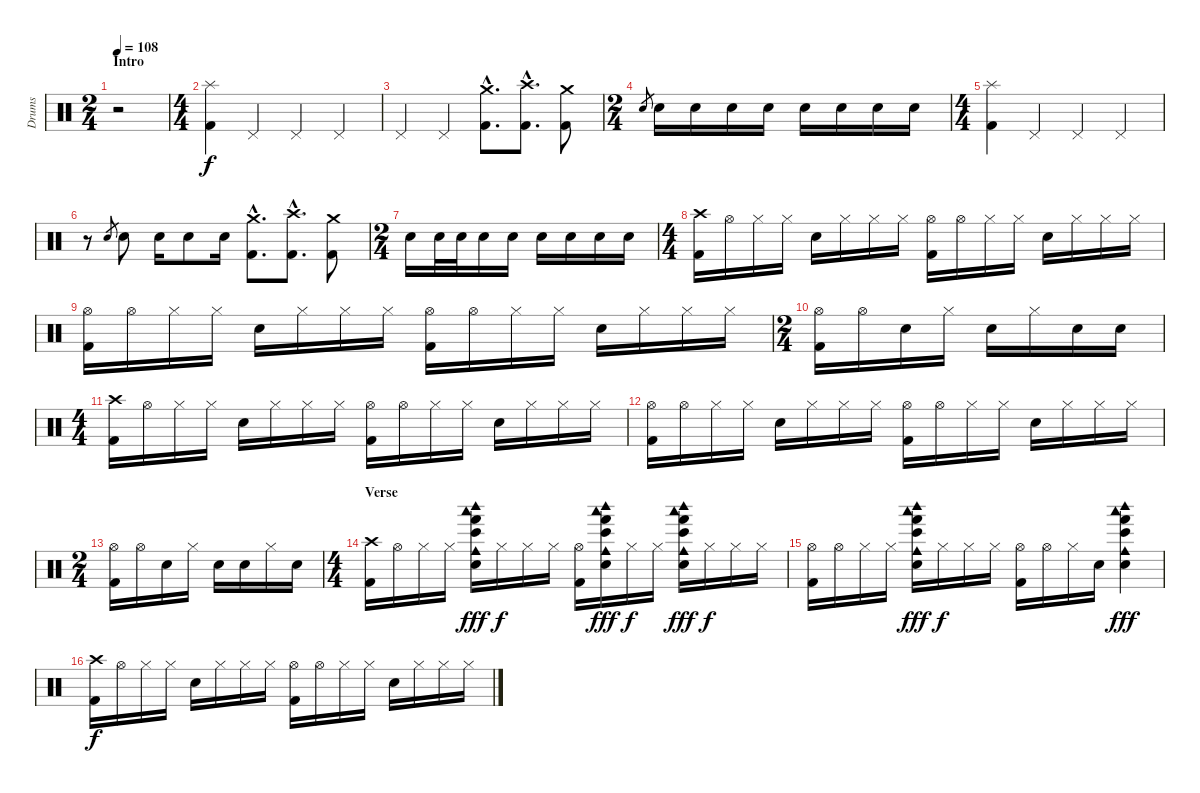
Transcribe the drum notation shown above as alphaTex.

\track ("Drums" "Drums") {instrument percussion}
\staff {score}
\articulation defaults
\ts (2 4)
\section ("" "Intro")
\tempo 108
\clef neutral
\ks c
r.2{dy f} |
\ts (4 4)
("Splash (hit)" "Kick (hit) 2").4 "Pedal Hi-Hat (hit)".4 "Pedal Hi-Hat (hit)".4 "Pedal Hi-Hat (hit)".4 |
"Pedal Hi-Hat (hit)".4 "Pedal Hi-Hat (hit)".4 ("Crash medium (hit)"{hac} "Kick (hit) 2"{hac}).8{d} ("Crash high (hit)"{hac} "Kick (hit) 2"{hac}).8{d} ("Crash medium (hit)" "Kick (hit) 2").8 |
\ts (2 4)
"Electric Snare (hit)".8{gr} "Electric Snare (hit)".16 "Electric Snare (hit)".16 "Electric Snare (hit)".16 "Electric Snare (hit)".16 "Electric Snare (hit)".16 "Electric Snare (hit)".16 "Electric Snare (hit)".16 "Electric Snare (hit)".16 |
\ts (4 4)
("Splash (hit)" "Kick (hit) 2").4 "Pedal Hi-Hat (hit)".4 "Pedal Hi-Hat (hit)".4 "Pedal Hi-Hat (hit)".4 |
r.8 "Electric Snare (hit)".8{gr} "Electric Snare (hit)".8 "Electric Snare (hit)".16 "Electric Snare (hit)".8 "Electric Snare (hit)".16 ("Crash medium (hit)"{hac} "Kick (hit) 2"{hac}).8{d} ("Crash high (hit)"{hac} "Kick (hit) 2"{hac}).8{d} ("Crash medium (hit)" "Kick (hit) 2").8 |
\ts (2 4)
"Electric Snare (hit)".16 "Electric Snare (hit)".32 "Electric Snare (hit)".32 "Electric Snare (hit)".16 "Electric Snare (hit)".16 "Electric Snare (hit)".16 "Electric Snare (hit)".16 "Electric Snare (hit)".16 "Electric Snare (hit)".16 |
\ts (4 4)
("Crash high (hit)" "Kick (hit) 2").16 "Hi-Hat (open)".16 "Hi-Hat (closed)".16 "Hi-Hat (closed)".16 "Electric Snare (hit)".16 "Hi-Hat (closed)".16 "Hi-Hat (closed)".16 "Hi-Hat (closed)".16 ("Hi-Hat (open)" "Kick (hit) 2").16 "Hi-Hat (open)".16 "Hi-Hat (closed)".16 "Hi-Hat (closed)".16 "Electric Snare (hit)".16 "Hi-Hat (closed)".16 "Hi-Hat (closed)".16 "Hi-Hat (closed)".16 |
("Hi-Hat (open)" "Kick (hit) 2").16 "Hi-Hat (open)".16 "Hi-Hat (closed)".16 "Hi-Hat (closed)".16 "Electric Snare (hit)".16 "Hi-Hat (closed)".16 "Hi-Hat (closed)".16 "Hi-Hat (closed)".16 ("Hi-Hat (open)" "Kick (hit) 2").16 "Hi-Hat (open)".16 "Hi-Hat (closed)".16 "Hi-Hat (closed)".16 "Electric Snare (hit)".16 "Hi-Hat (closed)".16 "Hi-Hat (closed)".16 "Hi-Hat (closed)".16 |
\ts (2 4)
("Hi-Hat (open)" "Kick (hit) 2").16 "Hi-Hat (open)".16 "Electric Snare (hit)".16 "Hi-Hat (closed)".16 "Electric Snare (hit)".16 "Hi-Hat (closed)".16 "Electric Snare (hit)".16 "Electric Snare (hit)".16 |
\ts (4 4)
("Crash high (hit)" "Kick (hit) 2").16 "Hi-Hat (open)".16 "Hi-Hat (closed)".16 "Hi-Hat (closed)".16 "Electric Snare (hit)".16 "Hi-Hat (closed)".16 "Hi-Hat (closed)".16 "Hi-Hat (closed)".16 ("Hi-Hat (open)" "Kick (hit) 2").16 "Hi-Hat (open)".16 "Hi-Hat (closed)".16 "Hi-Hat (closed)".16 "Electric Snare (hit)".16 "Hi-Hat (closed)".16 "Hi-Hat (closed)".16 "Hi-Hat (closed)".16 |
("Hi-Hat (open)" "Kick (hit) 2").16 "Hi-Hat (open)".16 "Hi-Hat (closed)".16 "Hi-Hat (closed)".16 "Electric Snare (hit)".16 "Hi-Hat (closed)".16 "Hi-Hat (closed)".16 "Hi-Hat (closed)".16 ("Hi-Hat (open)" "Kick (hit) 2").16 "Hi-Hat (open)".16 "Hi-Hat (closed)".16 "Hi-Hat (closed)".16 "Electric Snare (hit)".16 "Hi-Hat (closed)".16 "Hi-Hat (closed)".16 "Hi-Hat (closed)".16 |
\ts (2 4)
("Hi-Hat (open)" "Kick (hit) 2").16 "Hi-Hat (open)".16 "Electric Snare (hit)".16 "Hi-Hat (closed)".16 "Electric Snare (hit)".16 "Electric Snare (hit)".16 "Hi-Hat (closed)".16 "Electric Snare (hit)".16 |
\ts (4 4)
\section ("" "Verse")
("Crash high (hit)" "Kick (hit) 2").16 "Hi-Hat (open)".16 "Hi-Hat (closed)".16 "Hi-Hat (closed)".16 ("Woodblock low (hit)" "Woodblock high (hit)" "Cowbell medium (hit)" "Electric Snare (hit)" "Hand (hit)" "Bongo High (hit)").16{dy fff} "Hi-Hat (closed)".16{dy f} "Hi-Hat (closed)".16 "Hi-Hat (closed)".16 ("Hi-Hat (open)" "Kick (hit) 2").16 ("Woodblock low (hit)" "Woodblock high (hit)" "Cowbell medium (hit)" "Electric Snare (hit)" "Hand (hit)" "Bongo High (hit)").16{dy fff} "Hi-Hat (closed)".16{dy f} "Hi-Hat (closed)".16 ("Woodblock low (hit)" "Woodblock high (hit)" "Cowbell medium (hit)" "Electric Snare (hit)" "Hand (hit)" "Bongo High (hit)").16{dy fff} "Hi-Hat (closed)".16{dy f} "Hi-Hat (closed)".16 "Hi-Hat (closed)".16 |
("Hi-Hat (open)" "Kick (hit) 2").16 "Hi-Hat (open)".16 "Hi-Hat (closed)".16 "Hi-Hat (closed)".16 ("Woodblock low (hit)" "Woodblock high (hit)" "Cowbell medium (hit)" "Electric Snare (hit)" "Hand (hit)" "Bongo High (hit)").16{dy fff} "Hi-Hat (closed)".16{dy f} "Hi-Hat (closed)".16 "Hi-Hat (closed)".16 ("Hi-Hat (open)" "Kick (hit) 2").16 "Hi-Hat (open)".16 "Hi-Hat (closed)".16 "Electric Snare (hit)".16 ("Woodblock low (hit)" "Woodblock high (hit)" "Cowbell medium (hit)" "Electric Snare (hit)" "Hand (hit)" "Bongo High (hit)").4{dy fff} |
("Crash high (hit)" "Kick (hit) 2").16{dy f} "Hi-Hat (open)".16 "Hi-Hat (closed)".16 "Hi-Hat (closed)".16 "Electric Snare (hit)".16 "Hi-Hat (closed)".16 "Hi-Hat (closed)".16 "Hi-Hat (closed)".16 ("Hi-Hat (open)" "Kick (hit) 2").16 "Hi-Hat (open)".16 "Hi-Hat (closed)".16 "Hi-Hat (closed)".16 "Electric Snare (hit)".16 "Hi-Hat (closed)".16 "Hi-Hat (closed)".16 "Hi-Hat (closed)".16
